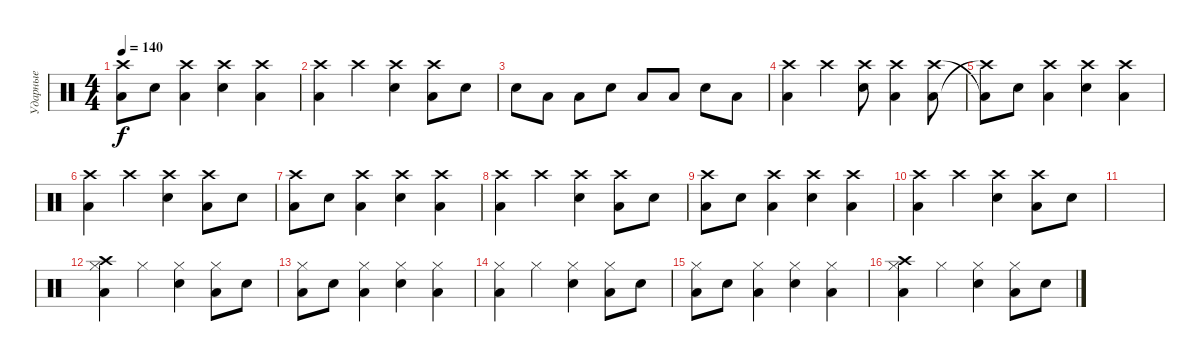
\track ("Ударные" "Ударные") {instrument percussion}
\staff {score}
\articulation defaults
\ts (4 4)
\tempo 140
\clef neutral
\ks c
("Crash high (hit)" "Low Floor Tom (hit)").8{dy f} "Electric Snare (hit)".8 ("Crash high (hit)" "Low Floor Tom (hit)").4 ("Crash high (hit)" "Electric Snare (hit)").4 ("Low Floor Tom (hit)" "Crash high (hit)").4 |
("Crash high (hit)" "Low Floor Tom (hit)").4 "Crash high (hit)".4 ("Crash high (hit)" "Electric Snare (hit)").4 ("Crash high (hit)" "Low Floor Tom (hit)").8 "Electric Snare (hit)".8 |
"Electric Snare (hit)".8 "Low Tom (hit)".8 "Low Tom (hit)".8 "Electric Snare (hit)".8 "Low Tom (hit)".8 "Low Tom (hit)".8 "Electric Snare (hit)".8 "Low Tom (hit)".8 |
("Crash high (hit)" "Low Floor Tom (hit)").4 "Crash high (hit)".4 ("Crash high (hit)" "Electric Snare (hit)").8 ("Crash high (hit)" "Low Floor Tom (hit)").4 ("Low Floor Tom (hit)" "Crash high (hit)").8 |
("Crash high (hit)"{t} "Low Floor Tom (hit)"{t}).8 "Electric Snare (hit)".8 ("Crash high (hit)" "Low Floor Tom (hit)").4 ("Crash high (hit)" "Electric Snare (hit)").4 ("Low Floor Tom (hit)" "Crash high (hit)").4 |
("Crash high (hit)" "Low Floor Tom (hit)").4 "Crash high (hit)".4 ("Crash high (hit)" "Electric Snare (hit)").4 ("Crash high (hit)" "Low Floor Tom (hit)").8 "Electric Snare (hit)".8 |
("Crash high (hit)" "Low Floor Tom (hit)").8 "Electric Snare (hit)".8 ("Crash high (hit)" "Low Floor Tom (hit)").4 ("Electric Snare (hit)" "Crash high (hit)").4 ("Low Floor Tom (hit)" "Crash high (hit)").4 |
("Crash high (hit)" "Low Floor Tom (hit)").4 "Crash high (hit)".4 ("Crash high (hit)" "Electric Snare (hit)").4 ("Crash high (hit)" "Low Floor Tom (hit)").8 "Electric Snare (hit)".8 |
("Crash high (hit)" "Low Floor Tom (hit)").8 "Electric Snare (hit)".8 ("Crash high (hit)" "Low Floor Tom (hit)").4 ("Crash high (hit)" "Electric Snare (hit)").4 ("Low Floor Tom (hit)" "Crash high (hit)").4 |
("Crash high (hit)" "Low Floor Tom (hit)").4 "Crash high (hit)".4 ("Crash high (hit)" "Electric Snare (hit)").4 ("Crash high (hit)" "Low Floor Tom (hit)").8 "Electric Snare (hit)".8 |
|
("Hi-Hat (closed)" "Crash high (hit)" "Low Floor Tom (hit)").4 "Hi-Hat (closed)".4 ("Hi-Hat (closed)" "Electric Snare (hit)").4 ("Hi-Hat (closed)" "Low Floor Tom (hit)").8 "Electric Snare (hit)".8 |
("Hi-Hat (closed)" "Low Floor Tom (hit)").8 "Electric Snare (hit)".8 ("Hi-Hat (closed)" "Low Floor Tom (hit)").4 ("Electric Snare (hit)" "Hi-Hat (closed)").4 ("Low Floor Tom (hit)" "Hi-Hat (closed)").4 |
("Hi-Hat (closed)" "Low Floor Tom (hit)").4 "Hi-Hat (closed)".4 ("Hi-Hat (closed)" "Electric Snare (hit)").4 ("Hi-Hat (closed)" "Low Floor Tom (hit)").8 "Electric Snare (hit)".8 |
("Hi-Hat (closed)" "Low Floor Tom (hit)").8 "Electric Snare (hit)".8 ("Hi-Hat (closed)" "Low Floor Tom (hit)").4 ("Electric Snare (hit)" "Hi-Hat (closed)").4 ("Low Floor Tom (hit)" "Hi-Hat (closed)").4 |
("Hi-Hat (closed)" "Crash high (hit)" "Low Floor Tom (hit)").4 "Hi-Hat (closed)".4 ("Hi-Hat (closed)" "Electric Snare (hit)").4 ("Hi-Hat (closed)" "Low Floor Tom (hit)").8 "Electric Snare (hit)".8
